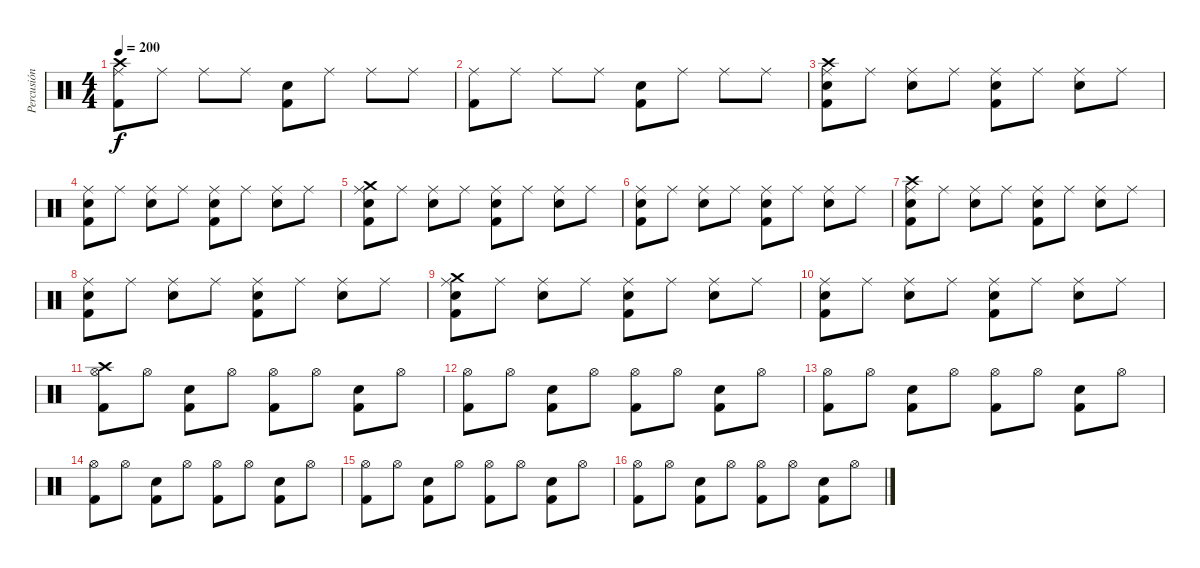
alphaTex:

\track ("Percusión" "Percusión") {instrument percussion}
\staff {score}
\articulation defaults
\ts (4 4)
\tempo 200
\clef neutral
\ks c
("Crash high (hit)" "Ride (middle)" "Kick (hit) 2").8{dy f} "Ride (middle)".8 "Ride (middle)".8 "Ride (middle)".8 ("Snare (hit) 2" "Kick (hit) 2").8 "Ride (middle)".8 "Ride (middle)".8 "Ride (middle)".8 |
("Ride (middle)" "Kick (hit) 2").8 "Ride (middle)".8 "Ride (middle)".8 "Ride (middle)".8 ("Snare (hit) 2" "Kick (hit) 2").8 "Ride (middle)".8 "Ride (middle)".8 "Ride (middle)".8 |
("Crash high (hit)" "Ride (middle)" "Snare (hit) 2" "Kick (hit) 2").8 "Ride (middle)".8 ("Ride (middle)" "Snare (hit) 2").8 "Ride (middle)".8 ("Ride (middle)" "Snare (hit) 2" "Kick (hit) 2").8 "Ride (middle)".8 ("Ride (middle)" "Snare (hit) 2").8 "Ride (middle)".8 |
("Ride (middle)" "Snare (hit) 2" "Kick (hit) 2").8 "Ride (middle)".8 ("Ride (middle)" "Snare (hit) 2").8 "Ride (middle)".8 ("Ride (middle)" "Snare (hit) 2" "Kick (hit) 2").8 "Ride (middle)".8 ("Ride (middle)" "Snare (hit) 2").8 "Ride (middle)".8 |
("Crash medium (hit)" "Ride (middle)" "Snare (hit) 2" "Kick (hit) 2").8 "Ride (middle)".8 ("Ride (middle)" "Snare (hit) 2").8 "Ride (middle)".8 ("Ride (middle)" "Snare (hit) 2" "Kick (hit) 2").8 "Ride (middle)".8 ("Ride (middle)" "Snare (hit) 2").8 "Ride (middle)".8 |
("Ride (middle)" "Snare (hit) 2" "Kick (hit) 2").8 "Ride (middle)".8 ("Ride (middle)" "Snare (hit) 2").8 "Ride (middle)".8 ("Ride (middle)" "Snare (hit) 2" "Kick (hit) 2").8 "Ride (middle)".8 ("Ride (middle)" "Snare (hit) 2").8 "Ride (middle)".8 |
("Crash high (hit)" "Ride (middle)" "Snare (hit) 2" "Kick (hit) 2").8 "Ride (middle)".8 ("Ride (middle)" "Snare (hit) 2").8 "Ride (middle)".8 ("Ride (middle)" "Snare (hit) 2" "Kick (hit) 2").8 "Ride (middle)".8 ("Ride (middle)" "Snare (hit) 2").8 "Ride (middle)".8 |
("Ride (middle)" "Snare (hit) 2" "Kick (hit) 2").8 "Ride (middle)".8 ("Ride (middle)" "Snare (hit) 2").8 "Ride (middle)".8 ("Ride (middle)" "Snare (hit) 2" "Kick (hit) 2").8 "Ride (middle)".8 ("Ride (middle)" "Snare (hit) 2").8 "Ride (middle)".8 |
("Crash medium (hit)" "Ride (middle)" "Snare (hit) 2" "Kick (hit) 2").8 "Ride (middle)".8 ("Ride (middle)" "Snare (hit) 2").8 "Ride (middle)".8 ("Ride (middle)" "Snare (hit) 2" "Kick (hit) 2").8 "Ride (middle)".8 ("Ride (middle)" "Snare (hit) 2").8 "Ride (middle)".8 |
("Ride (middle)" "Snare (hit) 2" "Kick (hit) 2").8 "Ride (middle)".8 ("Ride (middle)" "Snare (hit) 2").8 "Ride (middle)".8 ("Ride (middle)" "Snare (hit) 2" "Kick (hit) 2").8 "Ride (middle)".8 ("Ride (middle)" "Snare (hit) 2").8 "Ride (middle)".8 |
("Crash high (hit)" "Hi-Hat (open)" "Kick (hit) 2").8 "Hi-Hat (open)".8 ("Snare (hit) 2" "Kick (hit) 2").8 "Hi-Hat (open)".8 ("Hi-Hat (open)" "Kick (hit) 2").8 "Hi-Hat (open)".8 ("Snare (hit) 2" "Kick (hit) 2").8 "Hi-Hat (open)".8 |
("Hi-Hat (open)" "Kick (hit) 2").8 "Hi-Hat (open)".8 ("Snare (hit) 2" "Kick (hit) 2").8 "Hi-Hat (open)".8 ("Hi-Hat (open)" "Kick (hit) 2").8 "Hi-Hat (open)".8 ("Snare (hit) 2" "Kick (hit) 2").8 "Hi-Hat (open)".8 |
("Hi-Hat (open)" "Kick (hit) 2").8 "Hi-Hat (open)".8 ("Snare (hit) 2" "Kick (hit) 2").8 "Hi-Hat (open)".8 ("Hi-Hat (open)" "Kick (hit) 2").8 "Hi-Hat (open)".8 ("Snare (hit) 2" "Kick (hit) 2").8 "Hi-Hat (open)".8 |
("Hi-Hat (open)" "Kick (hit) 2").8 "Hi-Hat (open)".8 ("Snare (hit) 2" "Kick (hit) 2").8 "Hi-Hat (open)".8 ("Hi-Hat (open)" "Kick (hit) 2").8 "Hi-Hat (open)".8 ("Snare (hit) 2" "Kick (hit) 2").8 "Hi-Hat (open)".8 |
("Hi-Hat (open)" "Kick (hit) 2").8 "Hi-Hat (open)".8 ("Snare (hit) 2" "Kick (hit) 2").8 "Hi-Hat (open)".8 ("Hi-Hat (open)" "Kick (hit) 2").8 "Hi-Hat (open)".8 ("Snare (hit) 2" "Kick (hit) 2").8 "Hi-Hat (open)".8 |
("Hi-Hat (open)" "Kick (hit) 2").8 "Hi-Hat (open)".8 ("Snare (hit) 2" "Kick (hit) 2").8 "Hi-Hat (open)".8 ("Hi-Hat (open)" "Kick (hit) 2").8 "Hi-Hat (open)".8 ("Snare (hit) 2" "Kick (hit) 2").8 "Hi-Hat (open)".8
